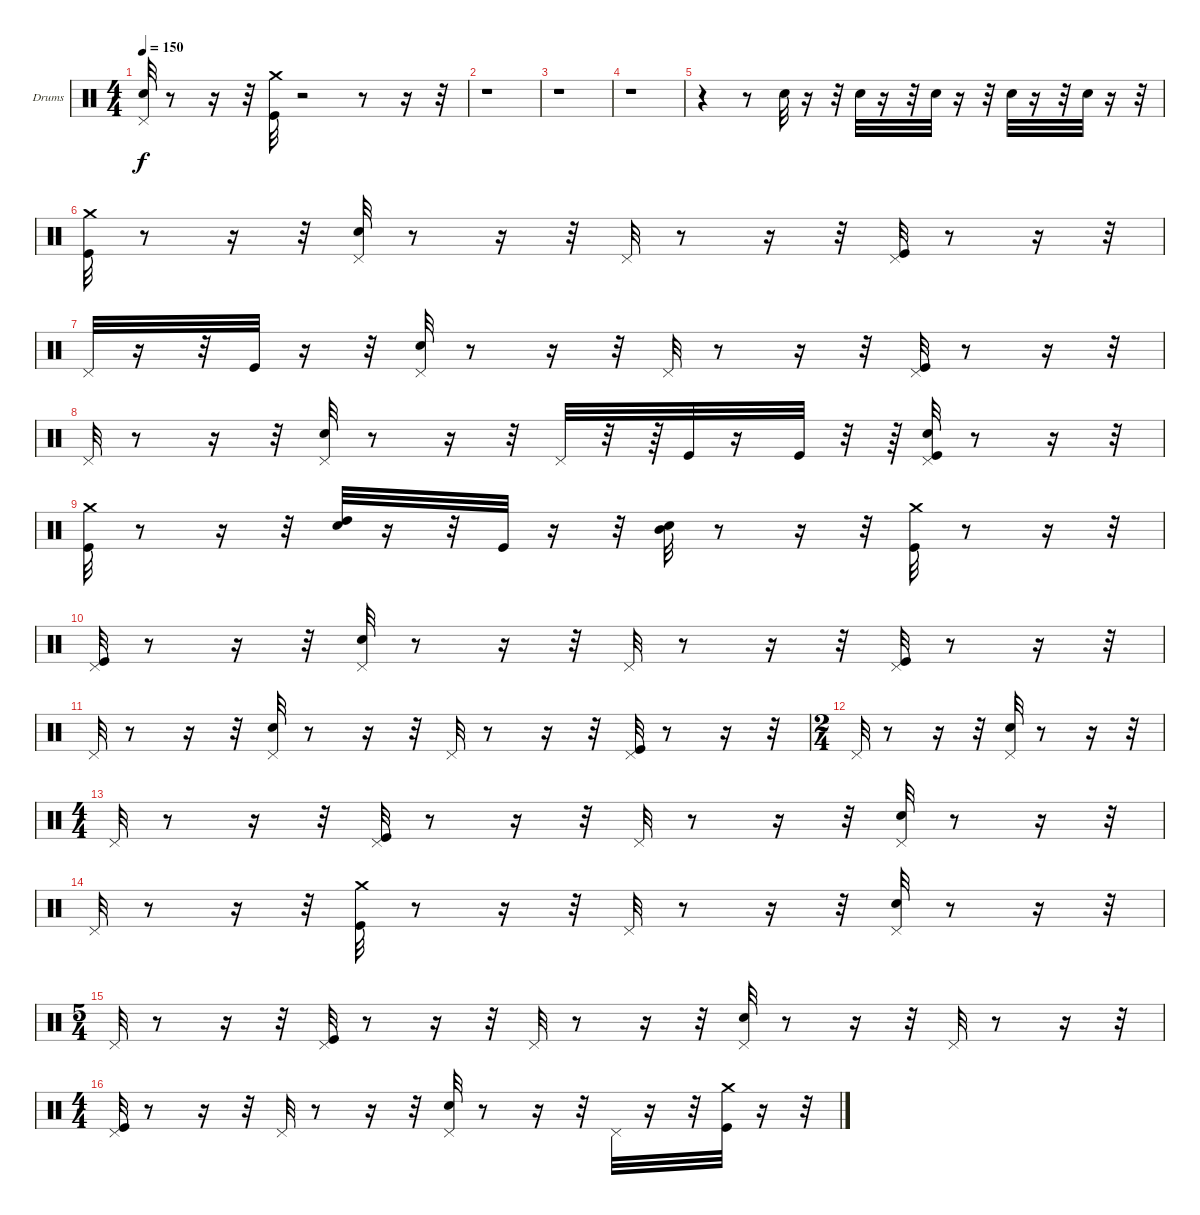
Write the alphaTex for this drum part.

\bracketExtendMode groupsimilarinstruments
\firstSystemTrackNameOrientation horizontal
\otherSystemsTrackNameOrientation horizontal
\track ("Drumkit" "Drums") {instrument percussion}
\staff {score}
\articulation defaults
\ts (4 4)
\tempo 150
\clef neutral
\ks c
("Pedal Hi-Hat (hit)" "Snare (hit) 2").32{dy f} r.8 r.16 r.32 ("Crash medium (hit)" "Kick (hit)").32 r.2 r.8 r.16 r.32 |
r.1 |
r.1 |
r.1 |
r.4 r.8 "Snare (hit) 2".32 r.16 r.32 "Snare (hit) 2".32 r.16 r.32 "Snare (hit) 2".32 r.16 r.32 "Snare (hit) 2".32 r.16 r.32 "Snare (hit) 2".32 r.16 r.32 |
("Crash medium (hit)" "Kick (hit)").32 r.8 r.16 r.32 ("Pedal Hi-Hat (hit)" "Snare (hit) 2").32 r.8 r.16 r.32 "Pedal Hi-Hat (hit)".32 r.8 r.16 r.32 ("Pedal Hi-Hat (hit)" "Kick (hit)").32 r.8 r.16 r.32 |
"Pedal Hi-Hat (hit)".32 r.16 r.32 "Kick (hit)".32 r.16 r.32 ("Pedal Hi-Hat (hit)" "Snare (hit) 2").32 r.8 r.16 r.32 "Pedal Hi-Hat (hit)".32 r.8 r.16 r.32 ("Pedal Hi-Hat (hit)" "Kick (hit)").32 r.8 r.16 r.32 |
"Pedal Hi-Hat (hit)".32 r.8 r.16 r.32 ("Pedal Hi-Hat (hit)" "Snare (hit) 2").32 r.8 r.16 r.32 "Pedal Hi-Hat (hit)".32 r.32 r.64 "Kick (hit)".32 r.16 "Kick (hit)".32 r.32 r.64 ("Pedal Hi-Hat (hit)" "Snare (hit) 2" "Kick (hit)").32 r.8 r.16 r.32 |
("Kick (hit)" "Crash medium (hit)").32 r.8 r.16 r.32 ("High Tom (hit)" "Snare (hit) 2").32 r.16 r.32 "Kick (hit)".32 r.16 r.32 ("Mid Tom (hit)" "Snare (hit) 2").32 r.8 r.16 r.32 ("Crash medium (hit)" "Kick (hit)").32 r.8 r.16 r.32 |
("Pedal Hi-Hat (hit)" "Kick (hit)").32 r.8 r.16 r.32 ("Pedal Hi-Hat (hit)" "Snare (hit) 2").32 r.8 r.16 r.32 "Pedal Hi-Hat (hit)".32 r.8 r.16 r.32 ("Kick (hit)" "Pedal Hi-Hat (hit)").32 r.8 r.16 r.32 |
"Pedal Hi-Hat (hit)".32 r.8 r.16 r.32 ("Snare (hit) 2" "Pedal Hi-Hat (hit)").32 r.8 r.16 r.32 "Pedal Hi-Hat (hit)".32 r.8 r.16 r.32 ("Kick (hit)" "Pedal Hi-Hat (hit)").32 r.8 r.16 r.32 |
\ts (2 4)
"Pedal Hi-Hat (hit)".32 r.8 r.16 r.32 ("Snare (hit) 2" "Pedal Hi-Hat (hit)").32 r.8 r.16 r.32 |
\ts (4 4)
"Pedal Hi-Hat (hit)".32 r.8 r.16 r.32 ("Kick (hit)" "Pedal Hi-Hat (hit)").32 r.8 r.16 r.32 "Pedal Hi-Hat (hit)".32 r.8 r.16 r.32 ("Snare (hit) 2" "Pedal Hi-Hat (hit)").32 r.8 r.16 r.32 |
"Pedal Hi-Hat (hit)".32 r.8 r.16 r.32 ("Crash medium (hit)" "Kick (hit)").32 r.8 r.16 r.32 "Pedal Hi-Hat (hit)".32 r.8 r.16 r.32 ("Pedal Hi-Hat (hit)" "Snare (hit) 2").32 r.8 r.16 r.32 |
\ts (5 4)
"Pedal Hi-Hat (hit)".32 r.8 r.16 r.32 ("Kick (hit)" "Pedal Hi-Hat (hit)").32 r.8 r.16 r.32 "Pedal Hi-Hat (hit)".32 r.8 r.16 r.32 ("Snare (hit) 2" "Pedal Hi-Hat (hit)").32 r.8 r.16 r.32 "Pedal Hi-Hat (hit)".32 r.8 r.16 r.32 |
\ts (4 4)
("Pedal Hi-Hat (hit)" "Kick (hit)").32 r.8 r.16 r.32 "Pedal Hi-Hat (hit)".32 r.8 r.16 r.32 ("Pedal Hi-Hat (hit)" "Snare (hit) 2").32 r.8 r.16 r.32 "Pedal Hi-Hat (hit)".32 r.16 r.32 ("Crash medium (hit)" "Kick (hit)").32 r.16 r.32
